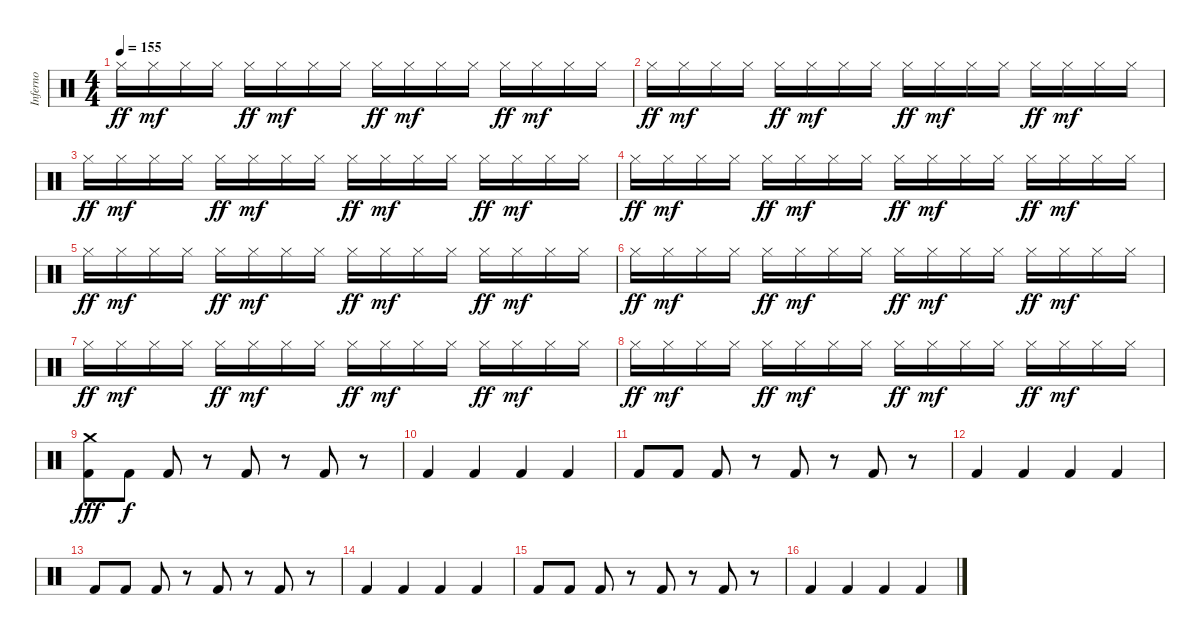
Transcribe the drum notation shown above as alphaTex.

\track ("Inferno" "Inferno") {instrument percussion}
\staff {score}
\articulation defaults
\ts (4 4)
\tempo 155
\clef neutral
\ks c "Hi-Hat (closed)".16{dy ff} "Hi-Hat (closed)".16{dy mf} "Hi-Hat (closed)".16 "Hi-Hat (closed)".16 "Hi-Hat (closed)".16{dy ff} "Hi-Hat (closed)".16{dy mf} "Hi-Hat (closed)".16 "Hi-Hat (closed)".16 "Hi-Hat (closed)".16{dy ff} "Hi-Hat (closed)".16{dy mf} "Hi-Hat (closed)".16 "Hi-Hat (closed)".16 "Hi-Hat (closed)".16{dy ff} "Hi-Hat (closed)".16{dy mf} "Hi-Hat (closed)".16 "Hi-Hat (closed)".16
|
"Hi-Hat (closed)".16{dy ff} "Hi-Hat (closed)".16{dy mf} "Hi-Hat (closed)".16 "Hi-Hat (closed)".16 "Hi-Hat (closed)".16{dy ff} "Hi-Hat (closed)".16{dy mf} "Hi-Hat (closed)".16 "Hi-Hat (closed)".16 "Hi-Hat (closed)".16{dy ff} "Hi-Hat (closed)".16{dy mf} "Hi-Hat (closed)".16 "Hi-Hat (closed)".16 "Hi-Hat (closed)".16{dy ff} "Hi-Hat (closed)".16{dy mf} "Hi-Hat (closed)".16 "Hi-Hat (closed)".16 |
"Hi-Hat (closed)".16{dy ff} "Hi-Hat (closed)".16{dy mf} "Hi-Hat (closed)".16 "Hi-Hat (closed)".16 "Hi-Hat (closed)".16{dy ff} "Hi-Hat (closed)".16{dy mf} "Hi-Hat (closed)".16 "Hi-Hat (closed)".16 "Hi-Hat (closed)".16{dy ff} "Hi-Hat (closed)".16{dy mf} "Hi-Hat (closed)".16 "Hi-Hat (closed)".16 "Hi-Hat (closed)".16{dy ff} "Hi-Hat (closed)".16{dy mf} "Hi-Hat (closed)".16 "Hi-Hat (closed)".16 |
"Hi-Hat (closed)".16{dy ff} "Hi-Hat (closed)".16{dy mf} "Hi-Hat (closed)".16 "Hi-Hat (closed)".16 "Hi-Hat (closed)".16{dy ff} "Hi-Hat (closed)".16{dy mf} "Hi-Hat (closed)".16 "Hi-Hat (closed)".16 "Hi-Hat (closed)".16{dy ff} "Hi-Hat (closed)".16{dy mf} "Hi-Hat (closed)".16 "Hi-Hat (closed)".16 "Hi-Hat (closed)".16{dy ff} "Hi-Hat (closed)".16{dy mf} "Hi-Hat (closed)".16 "Hi-Hat (closed)".16 |
"Hi-Hat (closed)".16{dy ff} "Hi-Hat (closed)".16{dy mf} "Hi-Hat (closed)".16 "Hi-Hat (closed)".16 "Hi-Hat (closed)".16{dy ff} "Hi-Hat (closed)".16{dy mf} "Hi-Hat (closed)".16 "Hi-Hat (closed)".16 "Hi-Hat (closed)".16{dy ff} "Hi-Hat (closed)".16{dy mf} "Hi-Hat (closed)".16 "Hi-Hat (closed)".16 "Hi-Hat (closed)".16{dy ff} "Hi-Hat (closed)".16{dy mf} "Hi-Hat (closed)".16 "Hi-Hat (closed)".16 |
"Hi-Hat (closed)".16{dy ff} "Hi-Hat (closed)".16{dy mf} "Hi-Hat (closed)".16 "Hi-Hat (closed)".16 "Hi-Hat (closed)".16{dy ff} "Hi-Hat (closed)".16{dy mf} "Hi-Hat (closed)".16 "Hi-Hat (closed)".16 "Hi-Hat (closed)".16{dy ff} "Hi-Hat (closed)".16{dy mf} "Hi-Hat (closed)".16 "Hi-Hat (closed)".16 "Hi-Hat (closed)".16{dy ff} "Hi-Hat (closed)".16{dy mf} "Hi-Hat (closed)".16 "Hi-Hat (closed)".16 |
"Hi-Hat (closed)".16{dy ff} "Hi-Hat (closed)".16{dy mf} "Hi-Hat (closed)".16 "Hi-Hat (closed)".16 "Hi-Hat (closed)".16{dy ff} "Hi-Hat (closed)".16{dy mf} "Hi-Hat (closed)".16 "Hi-Hat (closed)".16 "Hi-Hat (closed)".16{dy ff} "Hi-Hat (closed)".16{dy mf} "Hi-Hat (closed)".16 "Hi-Hat (closed)".16 "Hi-Hat (closed)".16{dy ff} "Hi-Hat (closed)".16{dy mf} "Hi-Hat (closed)".16 "Hi-Hat (closed)".16 |
"Hi-Hat (closed)".16{dy ff} "Hi-Hat (closed)".16{dy mf} "Hi-Hat (closed)".16 "Hi-Hat (closed)".16 "Hi-Hat (closed)".16{dy ff} "Hi-Hat (closed)".16{dy mf} "Hi-Hat (closed)".16 "Hi-Hat (closed)".16 "Hi-Hat (closed)".16{dy ff} "Hi-Hat (closed)".16{dy mf} "Hi-Hat (closed)".16 "Hi-Hat (closed)".16 "Hi-Hat (closed)".16{dy ff} "Hi-Hat (closed)".16{dy mf} "Hi-Hat (closed)".16 "Hi-Hat (closed)".16 |
("Crash medium (hit)" "Kick (hit) 2").8{dy fff} "Kick (hit) 2".8{dy f} "Kick (hit) 2".8 r.8 "Kick (hit) 2".8 r.8 "Kick (hit) 2".8 r.8 |
"Kick (hit) 2".4 "Kick (hit) 2".4 "Kick (hit) 2".4 "Kick (hit) 2".4 |
"Kick (hit) 2".8 "Kick (hit) 2".8 "Kick (hit) 2".8 r.8 "Kick (hit) 2".8 r.8 "Kick (hit) 2".8 r.8 |
"Kick (hit) 2".4 "Kick (hit) 2".4 "Kick (hit) 2".4 "Kick (hit) 2".4 |
"Kick (hit) 2".8 "Kick (hit) 2".8 "Kick (hit) 2".8 r.8 "Kick (hit) 2".8 r.8 "Kick (hit) 2".8 r.8 |
"Kick (hit) 2".4 "Kick (hit) 2".4 "Kick (hit) 2".4 "Kick (hit) 2".4 |
"Kick (hit) 2".8 "Kick (hit) 2".8 "Kick (hit) 2".8 r.8 "Kick (hit) 2".8 r.8 "Kick (hit) 2".8 r.8 |
"Kick (hit) 2".4 "Kick (hit) 2".4 "Kick (hit) 2".4 "Kick (hit) 2".4
